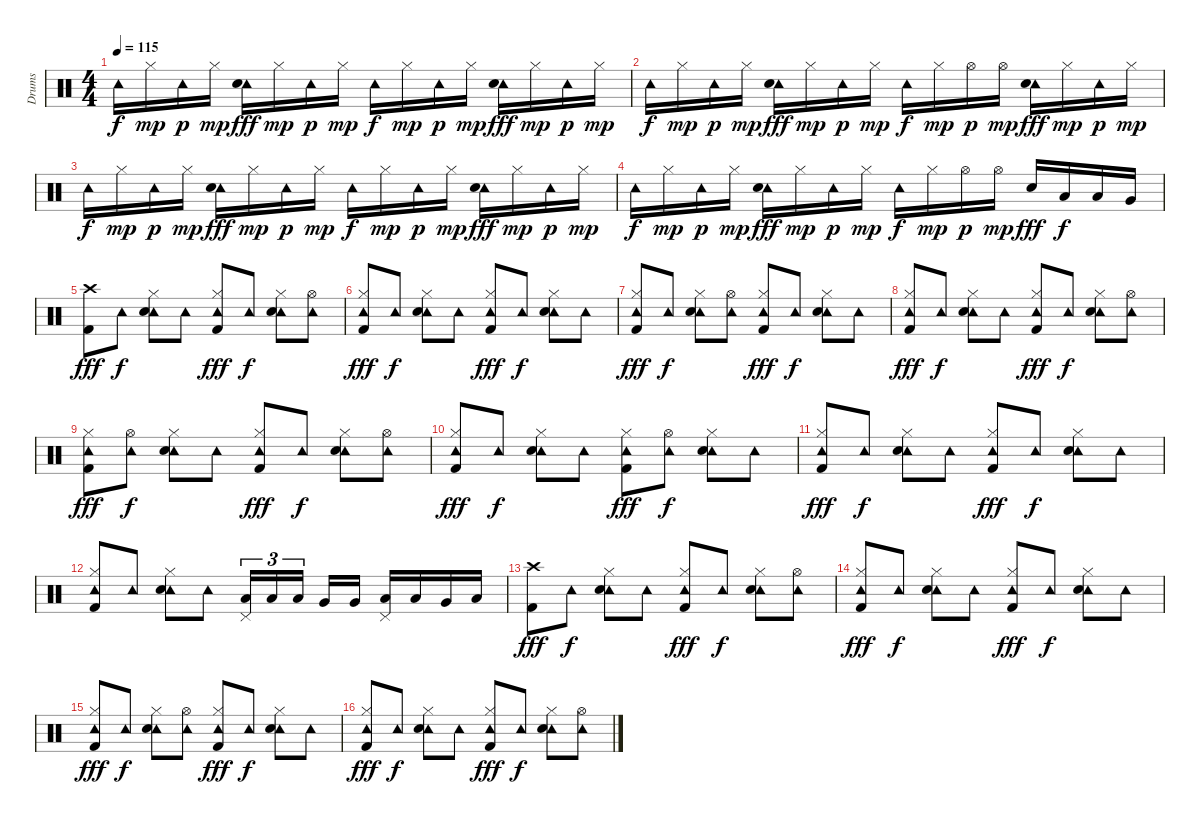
\track ("Drums" "Drums") {instrument percussion}
\staff {score}
\articulation defaults
\ts (4 4)
\tempo 115
\clef neutral
\ks c "Tambourine (hit)".16{dy f} "Hi-Hat (closed)".16{dy mp} "Tambourine (hit)".16{dy p} "Hi-Hat (closed)".16{dy mp}
("Tambourine (hit)" "Electric Snare (hit)").16{dy fff} "Hi-Hat (closed)".16{dy mp} "Tambourine (hit)".16{dy p} "Hi-Hat (closed)".16{dy mp} "Tambourine (hit)".16{dy f} "Hi-Hat (closed)".16{dy mp} "Tambourine (hit)".16{dy p} "Hi-Hat (closed)".16{dy mp} ("Tambourine (hit)" "Electric Snare (hit)").16{dy fff} "Hi-Hat (closed)".16{dy mp} "Tambourine (hit)".16{dy p} "Hi-Hat (closed)".16{dy mp} |
"Tambourine (hit)".16{dy f} "Hi-Hat (closed)".16{dy mp} "Tambourine (hit)".16{dy p} "Hi-Hat (closed)".16{dy mp} ("Tambourine (hit)" "Electric Snare (hit)").16{dy fff} "Hi-Hat (closed)".16{dy mp} "Tambourine (hit)".16{dy p} "Hi-Hat (closed)".16{dy mp} "Tambourine (hit)".16{dy f} "Hi-Hat (closed)".16{dy mp} "Hi-Hat (open)".16{dy p} "Hi-Hat (open)".16{dy mp} ("Tambourine (hit)" "Electric Snare (hit)").16{dy fff} "Hi-Hat (closed)".16{dy mp} "Tambourine (hit)".16{dy p} "Hi-Hat (closed)".16{dy mp} |
"Tambourine (hit)".16{dy f} "Hi-Hat (closed)".16{dy mp} "Tambourine (hit)".16{dy p} "Hi-Hat (closed)".16{dy mp} ("Tambourine (hit)" "Electric Snare (hit)").16{dy fff} "Hi-Hat (closed)".16{dy mp} "Tambourine (hit)".16{dy p} "Hi-Hat (closed)".16{dy mp} "Tambourine (hit)".16{dy f} "Hi-Hat (closed)".16{dy mp} "Tambourine (hit)".16{dy p} "Hi-Hat (closed)".16{dy mp} ("Tambourine (hit)" "Electric Snare (hit)").16{dy fff} "Hi-Hat (closed)".16{dy mp} "Tambourine (hit)".16{dy p} "Hi-Hat (closed)".16{dy mp} |
"Tambourine (hit)".16{dy f} "Hi-Hat (closed)".16{dy mp} "Tambourine (hit)".16{dy p} "Hi-Hat (closed)".16{dy mp} ("Tambourine (hit)" "Electric Snare (hit)").16{dy fff} "Hi-Hat (closed)".16{dy mp} "Tambourine (hit)".16{dy p} "Hi-Hat (closed)".16{dy mp} "Tambourine (hit)".16{dy f} "Hi-Hat (closed)".16{dy mp} "Hi-Hat (open)".16{dy p} "Hi-Hat (open)".16{dy mp} "Electric Snare (hit)".16{dy fff} "Low Tom (hit)".16{dy f} "Low Tom (hit)".16 "Very Low Tom (hit)".16 |
("Crash high (hit)" "Kick (hit) 2").8{dy fff volume 12} "Tambourine (hit)".8{dy f} ("Tambourine (hit)" "Hi-Hat (closed)" "Electric Snare (hit)").8 "Tambourine (hit)".8 ("Tambourine (hit)" "Hi-Hat (closed)" "Kick (hit) 2").8{dy fff} "Tambourine (hit)".8{dy f} ("Tambourine (hit)" "Hi-Hat (closed)" "Electric Snare (hit)").8 ("Tambourine (hit)" "Hi-Hat (open)").8 |
("Tambourine (hit)" "Hi-Hat (closed)" "Kick (hit) 2").8{dy fff} "Tambourine (hit)".8{dy f} ("Tambourine (hit)" "Hi-Hat (closed)" "Electric Snare (hit)").8 "Tambourine (hit)".8 ("Tambourine (hit)" "Hi-Hat (closed)" "Kick (hit) 2").8{dy fff} "Tambourine (hit)".8{dy f} ("Tambourine (hit)" "Hi-Hat (closed)" "Electric Snare (hit)").8 "Tambourine (hit)".8 |
("Tambourine (hit)" "Hi-Hat (closed)" "Kick (hit) 2").8{dy fff} "Tambourine (hit)".8{dy f} ("Tambourine (hit)" "Hi-Hat (closed)" "Electric Snare (hit)").8 ("Tambourine (hit)" "Hi-Hat (open)").8 ("Tambourine (hit)" "Hi-Hat (closed)" "Kick (hit) 2").8{dy fff} "Tambourine (hit)".8{dy f} ("Tambourine (hit)" "Hi-Hat (closed)" "Electric Snare (hit)").8 "Tambourine (hit)".8 |
("Tambourine (hit)" "Hi-Hat (closed)" "Kick (hit) 2").8{dy fff} "Tambourine (hit)".8{dy f} ("Tambourine (hit)" "Hi-Hat (closed)" "Electric Snare (hit)").8 "Tambourine (hit)".8 ("Tambourine (hit)" "Hi-Hat (closed)" "Kick (hit) 2").8{dy fff} "Tambourine (hit)".8{dy f} ("Tambourine (hit)" "Hi-Hat (closed)" "Electric Snare (hit)").8 ("Tambourine (hit)" "Hi-Hat (open)").8 |
("Tambourine (hit)" "Hi-Hat (closed)" "Kick (hit) 2").8{dy fff} ("Tambourine (hit)" "Hi-Hat (open)").8{dy f} ("Tambourine (hit)" "Hi-Hat (closed)" "Electric Snare (hit)").8 "Tambourine (hit)".8 ("Tambourine (hit)" "Hi-Hat (closed)" "Kick (hit) 2").8{dy fff} "Tambourine (hit)".8{dy f} ("Tambourine (hit)" "Hi-Hat (closed)" "Electric Snare (hit)").8 ("Tambourine (hit)" "Hi-Hat (open)").8 |
("Tambourine (hit)" "Hi-Hat (closed)" "Kick (hit) 2").8{dy fff} "Tambourine (hit)".8{dy f} ("Tambourine (hit)" "Hi-Hat (closed)" "Electric Snare (hit)").8 "Tambourine (hit)".8 ("Tambourine (hit)" "Hi-Hat (closed)" "Kick (hit) 2").8{dy fff} ("Tambourine (hit)" "Hi-Hat (open)").8{dy f} ("Tambourine (hit)" "Hi-Hat (closed)" "Electric Snare (hit)").8 "Tambourine (hit)".8 |
("Tambourine (hit)" "Hi-Hat (closed)" "Kick (hit) 2").8{dy fff} "Tambourine (hit)".8{dy f} ("Tambourine (hit)" "Hi-Hat (closed)" "Electric Snare (hit)").8 "Tambourine (hit)".8 ("Tambourine (hit)" "Hi-Hat (closed)" "Kick (hit) 2").8{dy fff} "Tambourine (hit)".8{dy f} ("Tambourine (hit)" "Hi-Hat (closed)" "Electric Snare (hit)").8 "Tambourine (hit)".8 |
("Tambourine (hit)" "Hi-Hat (closed)" "Kick (hit) 2").8 "Tambourine (hit)".8 ("Tambourine (hit)" "Hi-Hat (closed)" "Electric Snare (hit)").8 "Tambourine (hit)".8 ("Pedal Hi-Hat (hit)" "Low Tom (hit)").16{tu (3 2)} "Low Tom (hit)".16{tu (3 2)} "Low Tom (hit)".16{tu (3 2) beam splitsecondary} "Very Low Tom (hit)".16 "Very Low Tom (hit)".16 ("Pedal Hi-Hat (hit)" "Low Tom (hit)").16 "Low Tom (hit)".16 "Very Low Tom (hit)".16 "Low Floor Tom (hit)".16 |
("Crash high (hit)" "Kick (hit) 2").8{dy fff volume 12} "Tambourine (hit)".8{dy f} ("Tambourine (hit)" "Hi-Hat (closed)" "Electric Snare (hit)").8 "Tambourine (hit)".8 ("Tambourine (hit)" "Hi-Hat (closed)" "Kick (hit) 2").8{dy fff} "Tambourine (hit)".8{dy f} ("Tambourine (hit)" "Hi-Hat (closed)" "Electric Snare (hit)").8 ("Tambourine (hit)" "Hi-Hat (open)").8 |
("Tambourine (hit)" "Hi-Hat (closed)" "Kick (hit) 2").8{dy fff} "Tambourine (hit)".8{dy f} ("Tambourine (hit)" "Hi-Hat (closed)" "Electric Snare (hit)").8 "Tambourine (hit)".8 ("Tambourine (hit)" "Hi-Hat (closed)" "Kick (hit) 2").8{dy fff} "Tambourine (hit)".8{dy f} ("Tambourine (hit)" "Hi-Hat (closed)" "Electric Snare (hit)").8 "Tambourine (hit)".8 |
("Tambourine (hit)" "Hi-Hat (closed)" "Kick (hit) 2").8{dy fff} "Tambourine (hit)".8{dy f} ("Tambourine (hit)" "Hi-Hat (closed)" "Electric Snare (hit)").8 ("Tambourine (hit)" "Hi-Hat (open)").8 ("Tambourine (hit)" "Hi-Hat (closed)" "Kick (hit) 2").8{dy fff} "Tambourine (hit)".8{dy f} ("Tambourine (hit)" "Hi-Hat (closed)" "Electric Snare (hit)").8 "Tambourine (hit)".8 |
("Tambourine (hit)" "Hi-Hat (closed)" "Kick (hit) 2").8{dy fff} "Tambourine (hit)".8{dy f} ("Tambourine (hit)" "Hi-Hat (closed)" "Electric Snare (hit)").8 "Tambourine (hit)".8 ("Tambourine (hit)" "Hi-Hat (closed)" "Kick (hit) 2").8{dy fff} "Tambourine (hit)".8{dy f} ("Tambourine (hit)" "Hi-Hat (closed)" "Electric Snare (hit)").8 ("Tambourine (hit)" "Hi-Hat (open)").8
